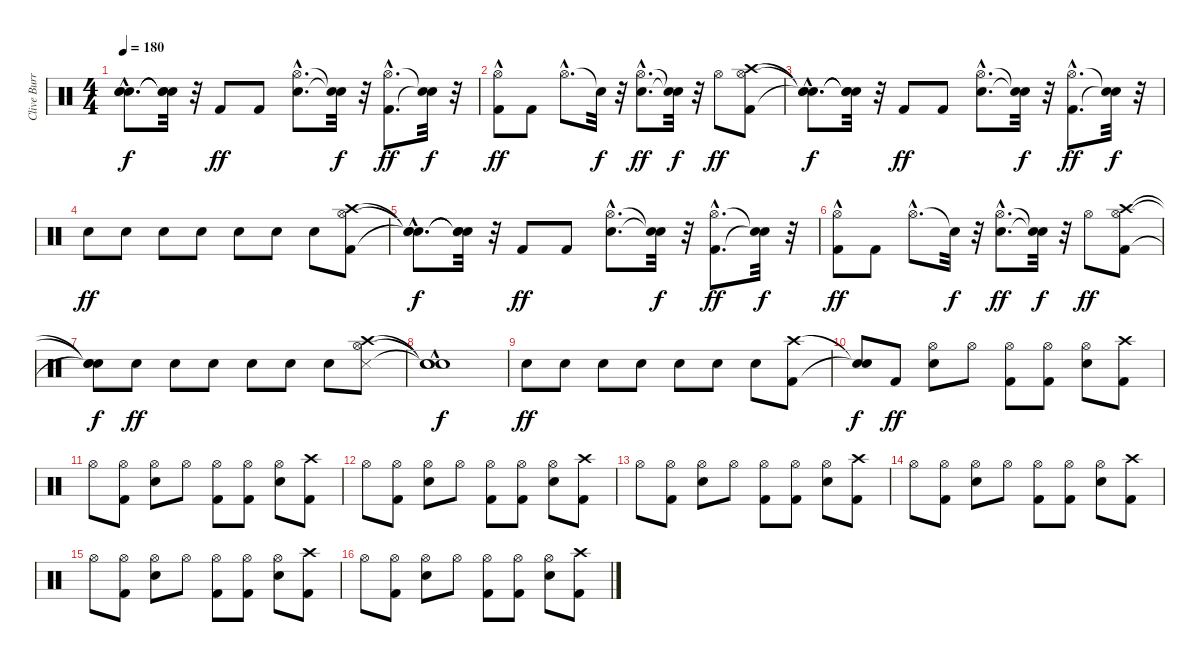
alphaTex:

\track ("Clive Burr" "Clive Burr") {instrument percussion}
\staff {score}
\articulation defaults
\ts (4 4)
\tempo 180
\clef neutral
\ks c
("Snare (hit)"{hac t} "Snare (hit)"{hac t} "Snare (hit)"{hac t}).8{d dy f} ("Snare (hit)"{t} "Snare (hit)"{t} "Snare (hit)"{t}).32 r.32 "Kick (hit) 2".8{dy ff} "Kick (hit) 2".8 ("Snare (hit) 2"{hac} "Hi-Hat (open)"{hac}).8{d} ("Snare (hit)"{t} "Snare (hit)"{t}).32{dy f} r.32 ("Kick (hit) 2"{hac} "Hi-Hat (open)"{hac}).8{d dy ff} ("Snare (hit)"{t} "Snare (hit)"{t}).32{dy f} r.32 |
("Kick (hit) 2" "Hi-Hat (open)"{hac}).8{dy ff} "Kick (hit) 2".8 "Hi-Hat (open)"{hac}.8{d} "Snare (hit)"{t}.32{dy f} r.32 ("Snare (hit) 2"{hac} "Hi-Hat (open)"{hac}).8{d dy ff} ("Snare (hit)"{t} "Snare (hit)"{t}).32{dy f} r.32 "Hi-Hat (open)".8{dy ff} ("Kick (hit) 2" "Hi-Hat (open)" "Crash high (hit)").8 |
("Snare (hit)"{hac t} "Snare (hit)"{hac t} "Snare (hit)"{hac t}).8{d dy f} ("Snare (hit)"{t} "Snare (hit)"{t} "Snare (hit)"{t}).32 r.32 "Kick (hit) 2".8{dy ff} "Kick (hit) 2".8 ("Snare (hit) 2"{hac} "Hi-Hat (open)"{hac}).8{d} ("Snare (hit)"{t} "Snare (hit)"{t}).32{dy f} r.32 ("Kick (hit) 2"{hac} "Hi-Hat (open)"{hac}).8{d dy ff} ("Snare (hit)"{t} "Snare (hit)"{t}).32{dy f} r.32 |
"Snare (hit) 2".8{dy ff} "Snare (hit) 2".8 "Snare (hit) 2".8 "Snare (hit) 2".8 "Snare (hit) 2".8 "Snare (hit) 2".8 "Snare (hit) 2".8 ("Kick (hit) 2" "Hi-Hat (open)" "Crash high (hit)").8 |
("Snare (hit)"{hac t} "Snare (hit)"{hac t} "Snare (hit)"{hac t}).8{d dy f} ("Snare (hit)"{t} "Snare (hit)"{t} "Snare (hit)"{t}).32 r.32 "Kick (hit) 2".8{dy ff} "Kick (hit) 2".8 ("Snare (hit) 2"{hac} "Hi-Hat (open)"{hac}).8{d} ("Snare (hit)"{t} "Snare (hit)"{t}).32{dy f} r.32 ("Kick (hit) 2"{hac} "Hi-Hat (open)"{hac}).8{d dy ff} ("Snare (hit)"{t} "Snare (hit)"{t}).32{dy f} r.32 |
("Kick (hit) 2" "Hi-Hat (open)"{hac}).8{dy ff} "Kick (hit) 2".8 "Hi-Hat (open)"{hac}.8{d} "Snare (hit)"{t}.32{dy f} r.32 ("Snare (hit) 2"{hac} "Hi-Hat (open)"{hac}).8{d dy ff} ("Snare (hit)"{t} "Snare (hit)"{t}).32{dy f} r.32 "Hi-Hat (open)".8{dy ff} ("Kick (hit) 2" "Hi-Hat (open)" "Crash high (hit)").8 |
("Snare (hit)"{t} "Snare (hit)"{t} "Snare (hit)"{t}).8{dy f} "Snare (hit) 2".8{dy ff} "Snare (hit) 2".8 "Snare (hit) 2".8 "Snare (hit) 2".8 "Snare (hit) 2".8 "Snare (hit) 2".8 ("Snare (side stick) 3" "Hi-Hat (open)" "Crash high (hit)").8 |
("Snare (hit)"{t} "Snare (hit)"{hac t} "Snare (hit)"{hac t}).1{dy f} |
"Snare (hit) 2".8{dy ff} "Snare (hit) 2".8 "Snare (hit) 2".8 "Snare (hit) 2".8 "Snare (hit) 2".8 "Snare (hit) 2".8 "Snare (hit) 2".8 ("Kick (hit) 2" "Crash high (hit)").8 |
("Snare (hit)"{t} "Snare (hit)"{t}).8{dy f} "Kick (hit) 2".8{dy ff} ("Snare (hit) 2" "Hi-Hat (open)").8 "Hi-Hat (open)".8 ("Kick (hit) 2" "Hi-Hat (open)").8 ("Kick (hit) 2" "Hi-Hat (open)").8 ("Snare (hit) 2" "Hi-Hat (open)").8 ("Kick (hit) 2" "Crash high (hit)").8 |
"Hi-Hat (open)".8 ("Kick (hit) 2" "Hi-Hat (open)").8 ("Snare (hit) 2" "Hi-Hat (open)").8 "Hi-Hat (open)".8 ("Kick (hit) 2" "Hi-Hat (open)").8 ("Kick (hit) 2" "Hi-Hat (open)").8 ("Snare (hit) 2" "Hi-Hat (open)").8 ("Kick (hit) 2" "Crash high (hit)").8 |
"Hi-Hat (open)".8 ("Kick (hit) 2" "Hi-Hat (open)").8 ("Snare (hit) 2" "Hi-Hat (open)").8 "Hi-Hat (open)".8 ("Kick (hit) 2" "Hi-Hat (open)").8 ("Kick (hit) 2" "Hi-Hat (open)").8 ("Snare (hit) 2" "Hi-Hat (open)").8 ("Kick (hit) 2" "Crash high (hit)").8 |
"Hi-Hat (open)".8 ("Kick (hit) 2" "Hi-Hat (open)").8 ("Snare (hit) 2" "Hi-Hat (open)").8 "Hi-Hat (open)".8 ("Kick (hit) 2" "Hi-Hat (open)").8 ("Kick (hit) 2" "Hi-Hat (open)").8 ("Snare (hit) 2" "Hi-Hat (open)").8 ("Kick (hit) 2" "Crash high (hit)").8 |
"Hi-Hat (open)".8 ("Kick (hit) 2" "Hi-Hat (open)").8 ("Snare (hit) 2" "Hi-Hat (open)").8 "Hi-Hat (open)".8 ("Kick (hit) 2" "Hi-Hat (open)").8 ("Kick (hit) 2" "Hi-Hat (open)").8 ("Snare (hit) 2" "Hi-Hat (open)").8 ("Kick (hit) 2" "Crash high (hit)").8 |
"Hi-Hat (open)".8 ("Kick (hit) 2" "Hi-Hat (open)").8 ("Snare (hit) 2" "Hi-Hat (open)").8 "Hi-Hat (open)".8 ("Kick (hit) 2" "Hi-Hat (open)").8 ("Kick (hit) 2" "Hi-Hat (open)").8 ("Snare (hit) 2" "Hi-Hat (open)").8 ("Kick (hit) 2" "Crash high (hit)").8 |
"Hi-Hat (open)".8 ("Kick (hit) 2" "Hi-Hat (open)").8 ("Snare (hit) 2" "Hi-Hat (open)").8 "Hi-Hat (open)".8 ("Kick (hit) 2" "Hi-Hat (open)").8 ("Kick (hit) 2" "Hi-Hat (open)").8 ("Snare (hit) 2" "Hi-Hat (open)").8 ("Kick (hit) 2" "Crash high (hit)").8
